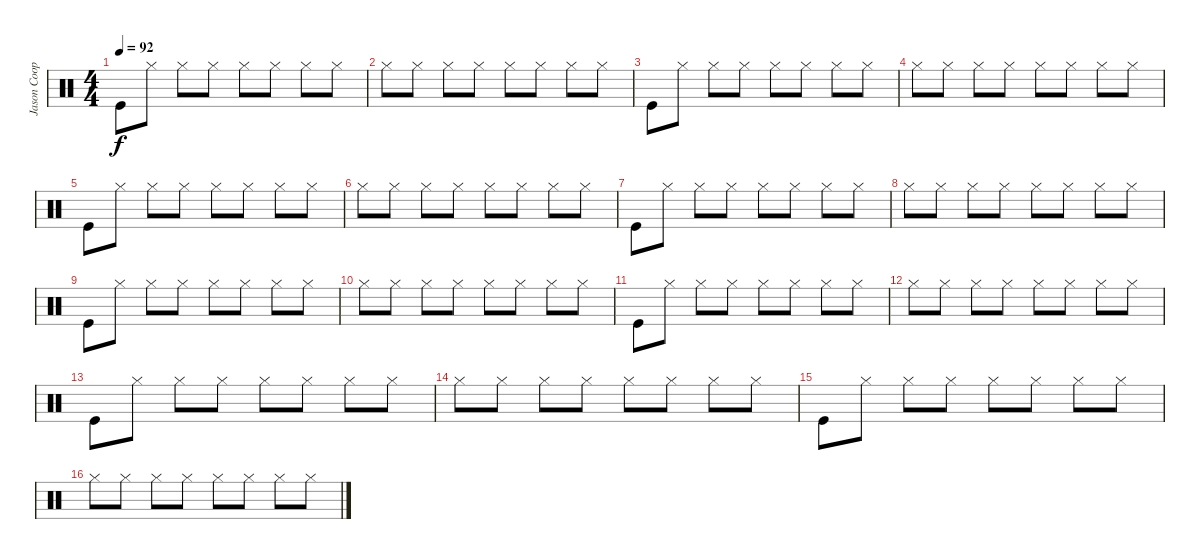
\track ("Jason Cooper " "Jason Coop") {instrument percussion}
\staff {score}
\articulation defaults
\ts (4 4)
\tempo 92
\clef neutral
\ks c "Kick (hit)".8{dy f} "Hi-Hat (closed)".8 "Hi-Hat (closed)".8 "Hi-Hat (closed)".8 "Hi-Hat (closed)".8 "Hi-Hat (closed)".8 "Hi-Hat (closed)".8 "Hi-Hat (closed)".8
|
"Hi-Hat (closed)".8 "Hi-Hat (closed)".8 "Hi-Hat (closed)".8 "Hi-Hat (closed)".8 "Hi-Hat (closed)".8 "Hi-Hat (closed)".8 "Hi-Hat (closed)".8 "Hi-Hat (closed)".8 |
"Kick (hit)".8 "Hi-Hat (closed)".8 "Hi-Hat (closed)".8 "Hi-Hat (closed)".8 "Hi-Hat (closed)".8 "Hi-Hat (closed)".8 "Hi-Hat (closed)".8 "Hi-Hat (closed)".8 |
"Hi-Hat (closed)".8 "Hi-Hat (closed)".8 "Hi-Hat (closed)".8 "Hi-Hat (closed)".8 "Hi-Hat (closed)".8 "Hi-Hat (closed)".8 "Hi-Hat (closed)".8 "Hi-Hat (closed)".8 |
"Kick (hit)".8 "Hi-Hat (closed)".8 "Hi-Hat (closed)".8 "Hi-Hat (closed)".8 "Hi-Hat (closed)".8 "Hi-Hat (closed)".8 "Hi-Hat (closed)".8 "Hi-Hat (closed)".8 |
"Hi-Hat (closed)".8 "Hi-Hat (closed)".8 "Hi-Hat (closed)".8 "Hi-Hat (closed)".8 "Hi-Hat (closed)".8 "Hi-Hat (closed)".8 "Hi-Hat (closed)".8 "Hi-Hat (closed)".8 |
"Kick (hit)".8 "Hi-Hat (closed)".8 "Hi-Hat (closed)".8 "Hi-Hat (closed)".8 "Hi-Hat (closed)".8 "Hi-Hat (closed)".8 "Hi-Hat (closed)".8 "Hi-Hat (closed)".8 |
"Hi-Hat (closed)".8 "Hi-Hat (closed)".8 "Hi-Hat (closed)".8 "Hi-Hat (closed)".8 "Hi-Hat (closed)".8 "Hi-Hat (closed)".8 "Hi-Hat (closed)".8 "Hi-Hat (closed)".8 |
"Kick (hit)".8 "Hi-Hat (closed)".8 "Hi-Hat (closed)".8 "Hi-Hat (closed)".8 "Hi-Hat (closed)".8 "Hi-Hat (closed)".8 "Hi-Hat (closed)".8 "Hi-Hat (closed)".8 |
"Hi-Hat (closed)".8 "Hi-Hat (closed)".8 "Hi-Hat (closed)".8 "Hi-Hat (closed)".8 "Hi-Hat (closed)".8 "Hi-Hat (closed)".8 "Hi-Hat (closed)".8 "Hi-Hat (closed)".8 |
"Kick (hit)".8 "Hi-Hat (closed)".8 "Hi-Hat (closed)".8 "Hi-Hat (closed)".8 "Hi-Hat (closed)".8 "Hi-Hat (closed)".8 "Hi-Hat (closed)".8 "Hi-Hat (closed)".8 |
"Hi-Hat (closed)".8 "Hi-Hat (closed)".8 "Hi-Hat (closed)".8 "Hi-Hat (closed)".8 "Hi-Hat (closed)".8 "Hi-Hat (closed)".8 "Hi-Hat (closed)".8 "Hi-Hat (closed)".8 |
"Kick (hit)".8 "Hi-Hat (closed)".8 "Hi-Hat (closed)".8 "Hi-Hat (closed)".8 "Hi-Hat (closed)".8 "Hi-Hat (closed)".8 "Hi-Hat (closed)".8 "Hi-Hat (closed)".8 |
"Hi-Hat (closed)".8 "Hi-Hat (closed)".8 "Hi-Hat (closed)".8 "Hi-Hat (closed)".8 "Hi-Hat (closed)".8 "Hi-Hat (closed)".8 "Hi-Hat (closed)".8 "Hi-Hat (closed)".8 |
"Kick (hit)".8 "Hi-Hat (closed)".8 "Hi-Hat (closed)".8 "Hi-Hat (closed)".8 "Hi-Hat (closed)".8 "Hi-Hat (closed)".8 "Hi-Hat (closed)".8 "Hi-Hat (closed)".8 |
"Hi-Hat (closed)".8 "Hi-Hat (closed)".8 "Hi-Hat (closed)".8 "Hi-Hat (closed)".8 "Hi-Hat (closed)".8 "Hi-Hat (closed)".8 "Hi-Hat (closed)".8 "Hi-Hat (closed)".8
